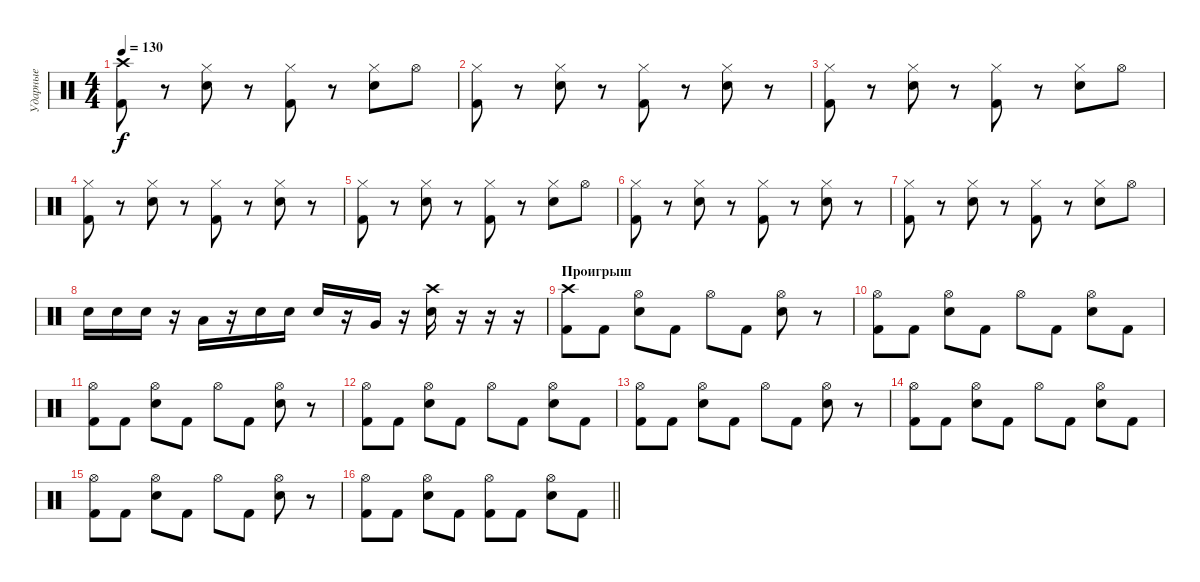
\track ("Ударные" "Ударные") {instrument percussion}
\staff {score}
\articulation defaults
\ts (4 4)
\tempo 130
\clef neutral
\ks c
("Crash high (hit)" "Kick (hit) 2").8{dy f} r.8 ("Hi-Hat (closed)" "Snare (hit) 2").8 r.8 ("Hi-Hat (closed)" "Kick (hit) 2").8 r.8 ("Hi-Hat (closed)" "Snare (hit) 2").8 "Hi-Hat (open)".8 |
("Hi-Hat (closed)" "Kick (hit) 2").8 r.8 ("Hi-Hat (closed)" "Snare (hit) 2").8 r.8 ("Hi-Hat (closed)" "Kick (hit) 2").8 r.8 ("Hi-Hat (closed)" "Snare (hit) 2").8 r.8 |
("Hi-Hat (closed)" "Kick (hit) 2").8 r.8 ("Hi-Hat (closed)" "Snare (hit) 2").8 r.8 ("Hi-Hat (closed)" "Kick (hit) 2").8 r.8 ("Hi-Hat (closed)" "Snare (hit) 2").8 "Hi-Hat (open)".8 |
("Hi-Hat (closed)" "Kick (hit) 2").8 r.8 ("Hi-Hat (closed)" "Snare (hit) 2").8 r.8 ("Hi-Hat (closed)" "Kick (hit) 2").8 r.8 ("Hi-Hat (closed)" "Snare (hit) 2").8 r.8 |
("Hi-Hat (closed)" "Kick (hit) 2").8 r.8 ("Hi-Hat (closed)" "Snare (hit) 2").8 r.8 ("Hi-Hat (closed)" "Kick (hit) 2").8 r.8 ("Hi-Hat (closed)" "Snare (hit) 2").8 "Hi-Hat (open)".8 |
("Hi-Hat (closed)" "Kick (hit) 2").8 r.8 ("Hi-Hat (closed)" "Snare (hit) 2").8 r.8 ("Hi-Hat (closed)" "Kick (hit) 2").8 r.8 ("Hi-Hat (closed)" "Snare (hit) 2").8 r.8 |
("Hi-Hat (closed)" "Kick (hit) 2").8 r.8 ("Hi-Hat (closed)" "Snare (hit) 2").8 r.8 ("Hi-Hat (closed)" "Kick (hit) 2").8 r.8 ("Hi-Hat (closed)" "Snare (hit) 2").8 "Hi-Hat (open)".8 |
"Snare (hit) 2".16 "Snare (hit) 2".16 "Snare (hit) 2".16 r.16 "Low Tom (hit)".16 r.16 "Snare (hit) 2".16 "Snare (hit) 2".16 "Snare (hit) 2".16 r.16 "Very Low Tom (hit)".16 r.16 ("Crash high (hit)" "Snare (hit) 2").16 r.16 r.16 r.16 |
\section ("" "Проигрыш")
("Crash high (hit)" "Kick (hit) 2").8 "Kick (hit) 2".8 ("Hi-Hat (open)" "Snare (hit) 2").8 "Kick (hit) 2".8 "Hi-Hat (open)".8 "Kick (hit) 2".8 ("Hi-Hat (open)" "Snare (hit) 2").8 r.8 |
("Hi-Hat (open)" "Kick (hit) 2").8 "Kick (hit) 2".8 ("Hi-Hat (open)" "Snare (hit) 2").8 "Kick (hit) 2".8 "Hi-Hat (open)".8 "Kick (hit) 2".8 ("Hi-Hat (open)" "Snare (hit) 2").8 "Kick (hit) 2".8 |
("Hi-Hat (open)" "Kick (hit) 2").8 "Kick (hit) 2".8 ("Hi-Hat (open)" "Snare (hit) 2").8 "Kick (hit) 2".8 "Hi-Hat (open)".8 "Kick (hit) 2".8 ("Hi-Hat (open)" "Snare (hit) 2").8 r.8 |
("Hi-Hat (open)" "Kick (hit) 2").8 "Kick (hit) 2".8 ("Hi-Hat (open)" "Snare (hit) 2").8 "Kick (hit) 2".8 "Hi-Hat (open)".8 "Kick (hit) 2".8 ("Hi-Hat (open)" "Snare (hit) 2").8 "Kick (hit) 2".8 |
("Hi-Hat (open)" "Kick (hit) 2").8 "Kick (hit) 2".8 ("Hi-Hat (open)" "Snare (hit) 2").8 "Kick (hit) 2".8 "Hi-Hat (open)".8 "Kick (hit) 2".8 ("Hi-Hat (open)" "Snare (hit) 2").8 r.8 |
("Hi-Hat (open)" "Kick (hit) 2").8 "Kick (hit) 2".8 ("Hi-Hat (open)" "Snare (hit) 2").8 "Kick (hit) 2".8 "Hi-Hat (open)".8 "Kick (hit) 2".8 ("Hi-Hat (open)" "Snare (hit) 2").8 "Kick (hit) 2".8 |
("Hi-Hat (open)" "Kick (hit) 2").8 "Kick (hit) 2".8 ("Hi-Hat (open)" "Snare (hit) 2").8 "Kick (hit) 2".8 "Hi-Hat (open)".8 "Kick (hit) 2".8 ("Hi-Hat (open)" "Snare (hit) 2").8 r.8 |
\barLineRight lightlight
("Hi-Hat (open)" "Kick (hit) 2").8 "Kick (hit) 2".8 ("Hi-Hat (open)" "Snare (hit) 2").8 "Kick (hit) 2".8 ("Hi-Hat (open)" "Kick (hit) 2").8 "Kick (hit) 2".8 ("Hi-Hat (open)" "Snare (hit) 2").8 "Kick (hit) 2".8
